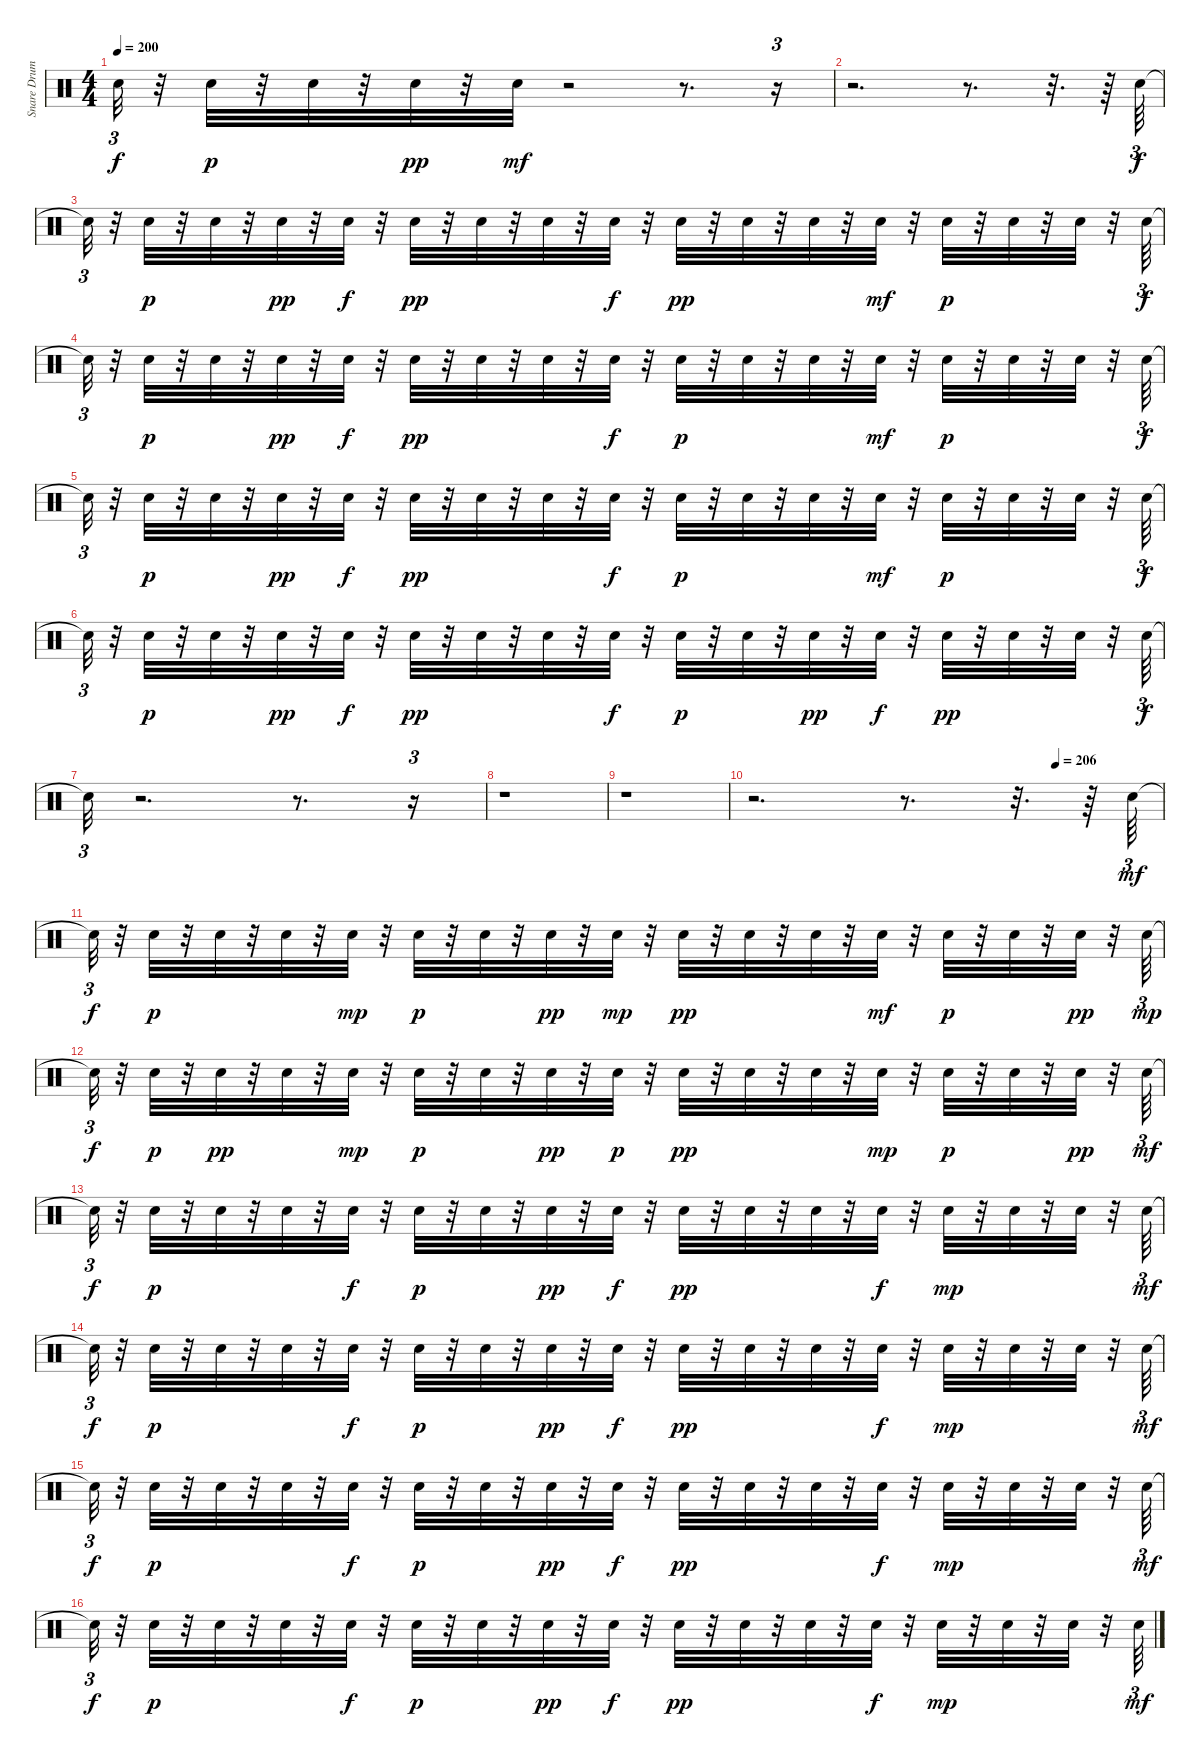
\track ("Snare Drums" "Snare Drum") {instrument percussion}
\staff {score}
\articulation defaults
\ts (4 4)
\tempo 200
\clef neutral
\ks c "Snare (hit)"{t}.32{tu (3 2) dy f}
r.32 "Hand Clap (hit)".32{dy p} r.32 "Hand Clap (hit)".32 r.32 "Hand Clap (hit)".32{dy pp} r.32 "Hand Clap (hit)".32{dy mf} r.2 r.8{d} r.16{tu (3 2)} |
r.2{d} r.8{d} r.32{d} r.64 "Hand Clap (hit)".64{tu (3 2) dy f} |
"Snare (hit)"{t}.32{tu (3 2)} r.32 "Hand Clap (hit)".32{dy p} r.32 "Hand Clap (hit)".32 r.32 "Hand Clap (hit)".32{dy pp} r.32 "Hand Clap (hit)".32{dy f} r.32 "Hand Clap (hit)".32{dy pp} r.32 "Hand Clap (hit)".32 r.32 "Hand Clap (hit)".32 r.32 "Hand Clap (hit)".32{dy f} r.32 "Hand Clap (hit)".32{dy pp} r.32 "Hand Clap (hit)".32 r.32 "Hand Clap (hit)".32 r.32 "Hand Clap (hit)".32{dy mf} r.32 "Hand Clap (hit)".32{dy p} r.32 "Hand Clap (hit)".32 r.32 "Hand Clap (hit)".32 r.32 "Hand Clap (hit)".64{tu (3 2) dy f} |
"Snare (hit)"{t}.32{tu (3 2)} r.32 "Hand Clap (hit)".32{dy p} r.32 "Hand Clap (hit)".32 r.32 "Hand Clap (hit)".32{dy pp} r.32 "Hand Clap (hit)".32{dy f} r.32 "Hand Clap (hit)".32{dy pp} r.32 "Hand Clap (hit)".32 r.32 "Hand Clap (hit)".32 r.32 "Hand Clap (hit)".32{dy f} r.32 "Hand Clap (hit)".32{dy p} r.32 "Hand Clap (hit)".32 r.32 "Hand Clap (hit)".32 r.32 "Hand Clap (hit)".32{dy mf} r.32 "Hand Clap (hit)".32{dy p} r.32 "Hand Clap (hit)".32 r.32 "Hand Clap (hit)".32 r.32 "Hand Clap (hit)".64{tu (3 2) dy f} |
"Snare (hit)"{t}.32{tu (3 2)} r.32 "Hand Clap (hit)".32{dy p} r.32 "Hand Clap (hit)".32 r.32 "Hand Clap (hit)".32{dy pp} r.32 "Hand Clap (hit)".32{dy f} r.32 "Hand Clap (hit)".32{dy pp} r.32 "Hand Clap (hit)".32 r.32 "Hand Clap (hit)".32 r.32 "Hand Clap (hit)".32{dy f} r.32 "Hand Clap (hit)".32{dy p} r.32 "Hand Clap (hit)".32 r.32 "Hand Clap (hit)".32 r.32 "Hand Clap (hit)".32{dy mf} r.32 "Hand Clap (hit)".32{dy p} r.32 "Hand Clap (hit)".32 r.32 "Hand Clap (hit)".32 r.32 "Hand Clap (hit)".64{tu (3 2) dy f} |
"Snare (hit)"{t}.32{tu (3 2)} r.32 "Hand Clap (hit)".32{dy p} r.32 "Hand Clap (hit)".32 r.32 "Hand Clap (hit)".32{dy pp} r.32 "Hand Clap (hit)".32{dy f} r.32 "Hand Clap (hit)".32{dy pp} r.32 "Hand Clap (hit)".32 r.32 "Hand Clap (hit)".32 r.32 "Hand Clap (hit)".32{dy f} r.32 "Hand Clap (hit)".32{dy p} r.32 "Hand Clap (hit)".32 r.32 "Hand Clap (hit)".32{dy pp} r.32 "Hand Clap (hit)".32{dy f} r.32 "Hand Clap (hit)".32{dy pp} r.32 "Hand Clap (hit)".32 r.32 "Hand Clap (hit)".32 r.32 "Hand Clap (hit)".64{tu (3 2) dy f} |
"Snare (hit)"{t}.32{tu (3 2)} r.2{d} r.8{d} r.16{tu (3 2)} |
r.1 |
r.1 |
\tempo (206 0.7395833333333334)
r.2{d} r.8{d} r.32{d} r.64 "Hand Clap (hit)".64{tu (3 2) dy mf} |
"Snare (hit)"{t}.32{tu (3 2) dy f} r.32 "Hand Clap (hit)".32{dy p} r.32 "Hand Clap (hit)".32 r.32 "Hand Clap (hit)".32 r.32 "Hand Clap (hit)".32{dy mp} r.32 "Hand Clap (hit)".32{dy p} r.32 "Hand Clap (hit)".32 r.32 "Hand Clap (hit)".32{dy pp} r.32 "Hand Clap (hit)".32{dy mp} r.32 "Hand Clap (hit)".32{dy pp} r.32 "Hand Clap (hit)".32 r.32 "Hand Clap (hit)".32 r.32 "Hand Clap (hit)".32{dy mf} r.32 "Hand Clap (hit)".32{dy p} r.32 "Hand Clap (hit)".32 r.32 "Hand Clap (hit)".32{dy pp} r.32 "Hand Clap (hit)".64{tu (3 2) dy mp} |
"Snare (hit)"{t}.32{tu (3 2) dy f} r.32 "Hand Clap (hit)".32{dy p} r.32 "Hand Clap (hit)".32{dy pp} r.32 "Hand Clap (hit)".32 r.32 "Hand Clap (hit)".32{dy mp} r.32 "Hand Clap (hit)".32{dy p} r.32 "Hand Clap (hit)".32 r.32 "Hand Clap (hit)".32{dy pp} r.32 "Hand Clap (hit)".32{dy p} r.32 "Hand Clap (hit)".32{dy pp} r.32 "Hand Clap (hit)".32 r.32 "Hand Clap (hit)".32 r.32 "Hand Clap (hit)".32{dy mp} r.32 "Hand Clap (hit)".32{dy p} r.32 "Hand Clap (hit)".32 r.32 "Hand Clap (hit)".32{dy pp} r.32 "Hand Clap (hit)".64{tu (3 2) dy mf} |
"Snare (hit)"{t}.32{tu (3 2) dy f} r.32 "Hand Clap (hit)".32{dy p} r.32 "Hand Clap (hit)".32 r.32 "Hand Clap (hit)".32 r.32 "Hand Clap (hit)".32{dy f} r.32 "Hand Clap (hit)".32{dy p} r.32 "Hand Clap (hit)".32 r.32 "Hand Clap (hit)".32{dy pp} r.32 "Hand Clap (hit)".32{dy f} r.32 "Hand Clap (hit)".32{dy pp} r.32 "Hand Clap (hit)".32 r.32 "Hand Clap (hit)".32 r.32 "Hand Clap (hit)".32{dy f} r.32 "Hand Clap (hit)".32{dy mp} r.32 "Hand Clap (hit)".32 r.32 "Hand Clap (hit)".32 r.32 "Hand Clap (hit)".64{tu (3 2) dy mf} |
"Snare (hit)"{t}.32{tu (3 2) dy f} r.32 "Hand Clap (hit)".32{dy p} r.32 "Hand Clap (hit)".32 r.32 "Hand Clap (hit)".32 r.32 "Hand Clap (hit)".32{dy f} r.32 "Hand Clap (hit)".32{dy p} r.32 "Hand Clap (hit)".32 r.32 "Hand Clap (hit)".32{dy pp} r.32 "Hand Clap (hit)".32{dy f} r.32 "Hand Clap (hit)".32{dy pp} r.32 "Hand Clap (hit)".32 r.32 "Hand Clap (hit)".32 r.32 "Hand Clap (hit)".32{dy f} r.32 "Hand Clap (hit)".32{dy mp} r.32 "Hand Clap (hit)".32 r.32 "Hand Clap (hit)".32 r.32 "Hand Clap (hit)".64{tu (3 2) dy mf} |
"Snare (hit)"{t}.32{tu (3 2) dy f} r.32 "Hand Clap (hit)".32{dy p} r.32 "Hand Clap (hit)".32 r.32 "Hand Clap (hit)".32 r.32 "Hand Clap (hit)".32{dy f} r.32 "Hand Clap (hit)".32{dy p} r.32 "Hand Clap (hit)".32 r.32 "Hand Clap (hit)".32{dy pp} r.32 "Hand Clap (hit)".32{dy f} r.32 "Hand Clap (hit)".32{dy pp} r.32 "Hand Clap (hit)".32 r.32 "Hand Clap (hit)".32 r.32 "Hand Clap (hit)".32{dy f} r.32 "Hand Clap (hit)".32{dy mp} r.32 "Hand Clap (hit)".32 r.32 "Hand Clap (hit)".32 r.32 "Hand Clap (hit)".64{tu (3 2) dy mf} |
"Snare (hit)"{t}.32{tu (3 2) dy f} r.32 "Hand Clap (hit)".32{dy p} r.32 "Hand Clap (hit)".32 r.32 "Hand Clap (hit)".32 r.32 "Hand Clap (hit)".32{dy f} r.32 "Hand Clap (hit)".32{dy p} r.32 "Hand Clap (hit)".32 r.32 "Hand Clap (hit)".32{dy pp} r.32 "Hand Clap (hit)".32{dy f} r.32 "Hand Clap (hit)".32{dy pp} r.32 "Hand Clap (hit)".32 r.32 "Hand Clap (hit)".32 r.32 "Hand Clap (hit)".32{dy f} r.32 "Hand Clap (hit)".32{dy mp} r.32 "Hand Clap (hit)".32 r.32 "Hand Clap (hit)".32 r.32 "Hand Clap (hit)".64{tu (3 2) dy mf}
